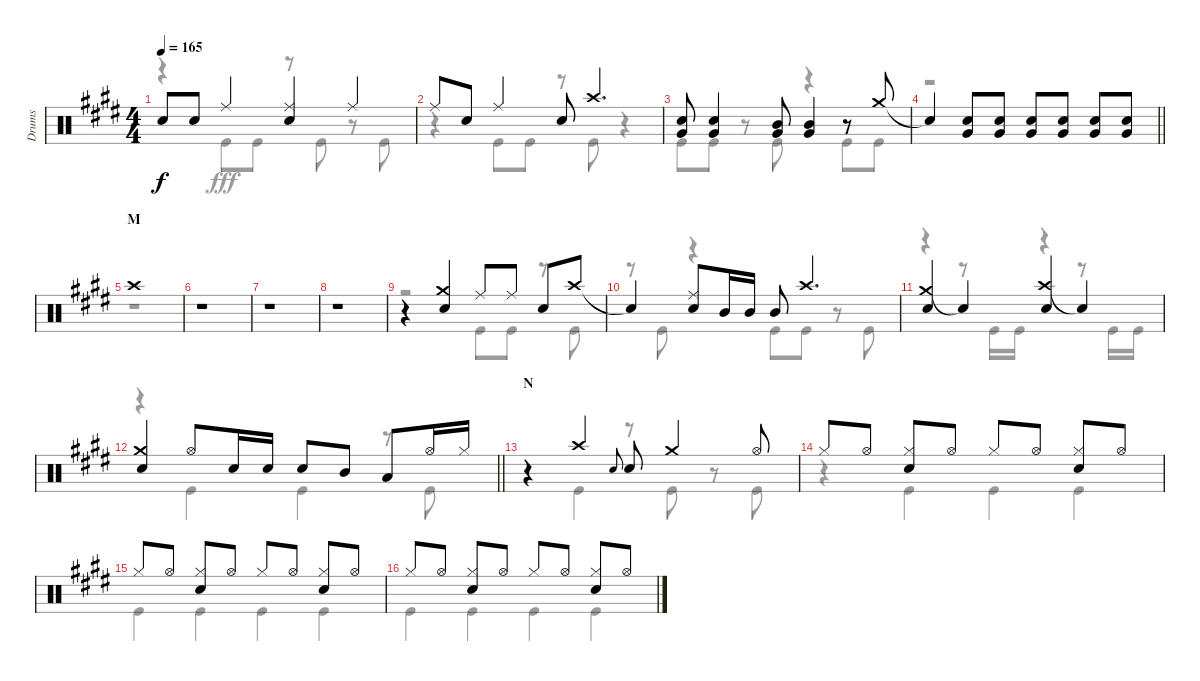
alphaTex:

\track ("Drums" "Drums") {instrument percussion}
\staff {score}
\articulation defaults
\voice
\ts (4 4)
\tempo 165
\clef neutral
\ks e "Snare (hit)"{t}.8{dy f} "Snare (hit) 2".8 "Ride (middle)".4
("Ride (middle)" "Snare (hit) 2").4 "Ride (middle)".4 |
"Ride (middle)".8 "Snare (hit) 2".8 "Ride (middle)".4 "Snare (hit) 2".8 "Crash high (hit)".4{d} |
("Snare (hit) 2" "Very Low Tom (hit)").8 ("Snare (hit) 2" "Very Low Tom (hit)").4 ("Mid Tom (hit)" "Very Low Tom (hit)").8 ("Mid Tom (hit)" "Very Low Tom (hit)").4 r.8 "Crash medium (hit)".8 |
\barLineRight lightlight "Snare (hit)"{t}.4
("Snare (hit) 2" "Very Low Tom (hit)").8 ("Snare (hit) 2" "Very Low Tom (hit)").8 ("Snare (hit) 2" "Very Low Tom (hit)").8 ("Snare (hit) 2" "Very Low Tom (hit)").8 ("Snare (hit) 2" "Very Low Tom (hit)").8 ("Snare (hit) 2" "Very Low Tom (hit)").8 |
\section ("" "M")
"Crash high (hit)".1 |
r.1 |
r.1 |
r.1 |
r.4 ("Crash medium (hit)" "Snare (hit) 2").4 "Ride (middle)".8 "Ride (middle)".8 "Snare (hit) 2".8 "Crash high (hit)".8 |
"Snare (hit)"{t}.4 ("Ride (middle)" "Snare (hit) 2").8 "Mid Tom (hit)".16 "Mid Tom (hit)".16 "Mid Tom (hit)".8 "Crash high (hit)".4{d} |
("Crash medium (hit)" "Snare (hit) 2").4 "Snare (hit)"{t}.4 ("Crash high (hit)" "Snare (hit) 2").4 "Snare (hit)"{t}.4 |
\barLineRight lightlight
("Crash medium (hit)" "Snare (hit) 2").4 "Hi-Hat (open)".8 "Snare (hit) 2".16 "Snare (hit) 2".16 "Snare (hit) 2".8 "Mid Tom (hit)".8 "Low Tom (hit)".8 "Hi-Hat (open)".16 "Hi-Hat (closed)".16 |
\section ("" "N")
r.4 "Crash high (hit)".4 "Snare (hit) 2".8{gr onbeat} "Snare (hit) 2".8 "Crash medium (hit)".4 "Hi-Hat (open)".8 |
"Hi-Hat (closed)".8 "Hi-Hat (open)".8 ("Hi-Hat (closed)" "Snare (hit) 2").8 "Hi-Hat (open)".8 "Hi-Hat (closed)".8 "Hi-Hat (open)".8 ("Hi-Hat (closed)" "Snare (hit) 2").8 "Hi-Hat (open)".8 |
"Hi-Hat (closed)".8 "Hi-Hat (open)".8 ("Hi-Hat (closed)" "Snare (hit) 2").8 "Hi-Hat (open)".8 "Hi-Hat (closed)".8 "Hi-Hat (open)".8 ("Hi-Hat (closed)" "Snare (hit) 2").8 "Hi-Hat (open)".8 |
"Hi-Hat (closed)".8 "Hi-Hat (open)".8 ("Hi-Hat (closed)" "Snare (hit) 2").8 "Hi-Hat (open)".8 "Hi-Hat (closed)".8 "Hi-Hat (open)".8 ("Hi-Hat (closed)" "Snare (hit) 2").8 "Hi-Hat (open)".8
\voice
\clef neutral
\ottava regular
\simile none
\ks e
r.4{dy fff} "Kick (hit)".8 "Kick (hit)".8 r.8 "Kick (hit)".8 r.8 "Kick (hit)".8 |
r.4 "Kick (hit)".8 "Kick (hit)".8 r.8 "Kick (hit)".8 r.4 |
"Kick (hit)".8 "Kick (hit)".8 r.8 "Kick (hit)".8 r.4 "Kick (hit)".8 "Kick (hit)".8 |
\barLineRight lightlight
r.1 |
r.1 |
r.1 |
r.1 |
r.1 |
r.2 "Kick (hit)".8 "Kick (hit)".8 r.8 "Kick (hit)".8 |
r.8 "Kick (hit)".8 r.4 "Kick (hit)".8 "Kick (hit)".8 r.8 "Kick (hit)".8 |
r.4 r.8 "Kick (hit)".16 "Kick (hit)".16 r.4 r.8 "Kick (hit)".16 "Kick (hit)".16 |
\barLineRight lightlight
r.4 "Kick (hit)".4 "Kick (hit)".4 r.8 "Kick (hit)".8 |
r.4 "Kick (hit)".4 r.8 "Kick (hit)".8 r.8 "Kick (hit)".8 |
r.4 "Kick (hit)".4 "Kick (hit)".4 "Kick (hit)".4 |
"Kick (hit)".4 "Kick (hit)".4 "Kick (hit)".4 "Kick (hit)".4 |
"Kick (hit)".4 "Kick (hit)".4 "Kick (hit)".4 "Kick (hit)".4
